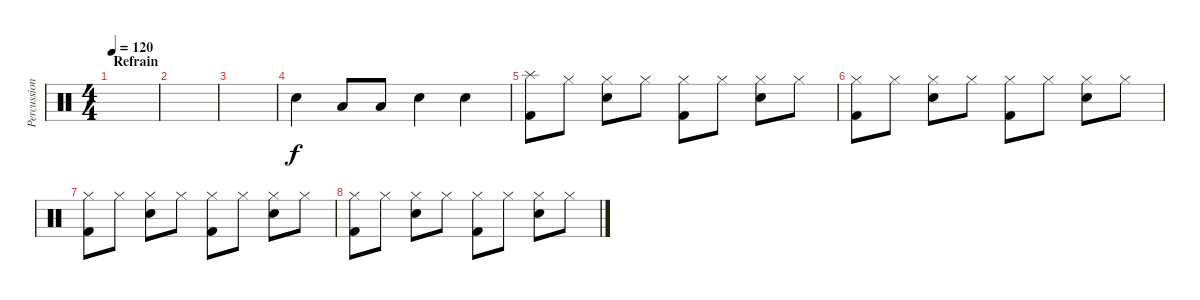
\track ("Percussions" "Percussion") {instrument percussion}
\staff {score}
\articulation defaults
\ts (4 4)
\section ("" "Refrain")
\tempo 120
\clef neutral
\ks c
|
|
|
"Electric Snare (hit)".4 "Low Tom (hit)".8 "Low Tom (hit)".8 "Electric Snare (hit)".4 "Electric Snare (hit)".4 |
("Kick (hit) 2" "Splash (hit)").8 "Hi-Hat (closed)".8 ("Electric Snare (hit)" "Hi-Hat (closed)").8 "Hi-Hat (closed)".8 ("Kick (hit) 2" "Hi-Hat (closed)").8 "Hi-Hat (closed)".8 ("Electric Snare (hit)" "Hi-Hat (closed)").8 "Hi-Hat (closed)".8 |
("Kick (hit) 2" "Hi-Hat (closed)").8 "Hi-Hat (closed)".8 ("Electric Snare (hit)" "Hi-Hat (closed)").8 "Hi-Hat (closed)".8 ("Kick (hit) 2" "Hi-Hat (closed)").8 "Hi-Hat (closed)".8 ("Electric Snare (hit)" "Hi-Hat (closed)").8 "Hi-Hat (closed)".8 |
("Kick (hit) 2" "Hi-Hat (closed)").8 "Hi-Hat (closed)".8 ("Electric Snare (hit)" "Hi-Hat (closed)").8 "Hi-Hat (closed)".8 ("Kick (hit) 2" "Hi-Hat (closed)").8 "Hi-Hat (closed)".8 ("Electric Snare (hit)" "Hi-Hat (closed)").8 "Hi-Hat (closed)".8 |
("Kick (hit) 2" "Hi-Hat (closed)").8 "Hi-Hat (closed)".8 ("Electric Snare (hit)" "Hi-Hat (closed)").8 "Hi-Hat (closed)".8 ("Kick (hit) 2" "Hi-Hat (closed)").8 "Hi-Hat (closed)".8 ("Electric Snare (hit)" "Hi-Hat (closed)").8 "Hi-Hat (closed)".8
